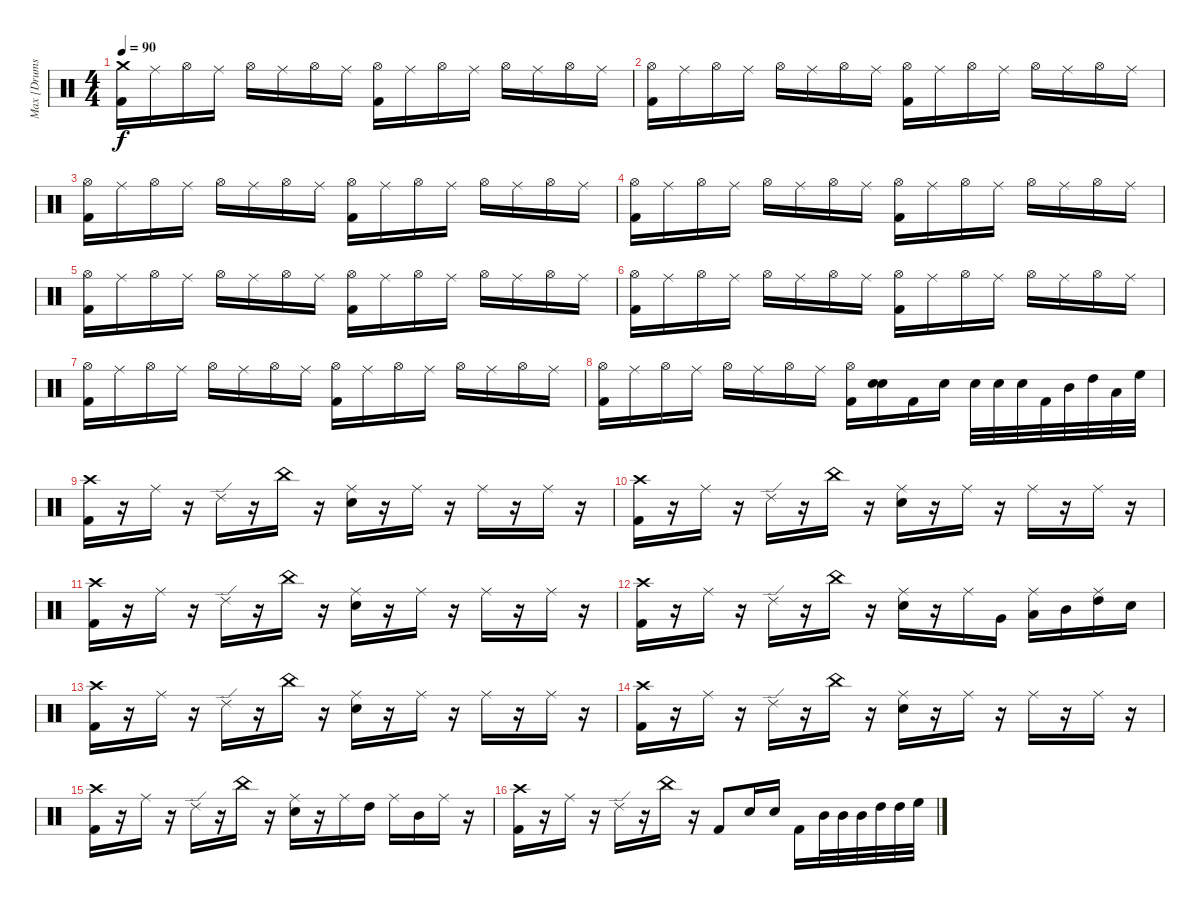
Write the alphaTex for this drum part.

\track ("Max [Drums]" "Max [Drums") {instrument percussion}
\staff {score}
\articulation defaults
\ts (4 4)
\tempo 90
\clef neutral
\ks c
("Crash medium (hit)" "Kick (hit) 2").16{dy f} "Ride (middle)".16 "Hi-Hat (open)".16 "Ride (middle)".16 "Hi-Hat (open)".16 "Ride (middle)".16 "Hi-Hat (open)".16 "Ride (middle)".16 ("Hi-Hat (open)" "Kick (hit) 2").16 "Ride (middle)".16 "Hi-Hat (open)".16 "Ride (middle)".16 "Hi-Hat (open)".16 "Ride (middle)".16 "Hi-Hat (open)".16 "Ride (middle)".16 |
("Hi-Hat (open)" "Kick (hit) 2").16 "Ride (middle)".16 "Hi-Hat (open)".16 "Ride (middle)".16 "Hi-Hat (open)".16 "Ride (middle)".16 "Hi-Hat (open)".16 "Ride (middle)".16 ("Hi-Hat (open)" "Kick (hit) 2").16 "Ride (middle)".16 "Hi-Hat (open)".16 "Ride (middle)".16 "Hi-Hat (open)".16 "Ride (middle)".16 "Hi-Hat (open)".16 "Ride (middle)".16 |
("Hi-Hat (open)" "Kick (hit) 2").16 "Ride (middle)".16 "Hi-Hat (open)".16 "Ride (middle)".16 "Hi-Hat (open)".16 "Ride (middle)".16 "Hi-Hat (open)".16 "Ride (middle)".16 ("Hi-Hat (open)" "Kick (hit) 2").16 "Ride (middle)".16 "Hi-Hat (open)".16 "Ride (middle)".16 "Hi-Hat (open)".16 "Ride (middle)".16 "Hi-Hat (open)".16 "Ride (middle)".16 |
("Hi-Hat (open)" "Kick (hit) 2").16 "Ride (middle)".16 "Hi-Hat (open)".16 "Ride (middle)".16 "Hi-Hat (open)".16 "Ride (middle)".16 "Hi-Hat (open)".16 "Ride (middle)".16 ("Hi-Hat (open)" "Kick (hit) 2").16 "Ride (middle)".16 "Hi-Hat (open)".16 "Ride (middle)".16 "Hi-Hat (open)".16 "Ride (middle)".16 "Hi-Hat (open)".16 "Ride (middle)".16 |
("Hi-Hat (open)" "Kick (hit) 2").16 "Ride (middle)".16 "Hi-Hat (open)".16 "Ride (middle)".16 "Hi-Hat (open)".16 "Ride (middle)".16 "Hi-Hat (open)".16 "Ride (middle)".16 ("Hi-Hat (open)" "Kick (hit) 2").16 "Ride (middle)".16 "Hi-Hat (open)".16 "Ride (middle)".16 "Hi-Hat (open)".16 "Ride (middle)".16 "Hi-Hat (open)".16 "Ride (middle)".16 |
("Hi-Hat (open)" "Kick (hit) 2").16 "Ride (middle)".16 "Hi-Hat (open)".16 "Ride (middle)".16 "Hi-Hat (open)".16 "Ride (middle)".16 "Hi-Hat (open)".16 "Ride (middle)".16 ("Hi-Hat (open)" "Kick (hit) 2").16 "Ride (middle)".16 "Hi-Hat (open)".16 "Ride (middle)".16 "Hi-Hat (open)".16 "Ride (middle)".16 "Hi-Hat (open)".16 "Ride (middle)".16 |
("Hi-Hat (open)" "Kick (hit) 2").16 "Ride (middle)".16 "Hi-Hat (open)".16 "Ride (middle)".16 "Hi-Hat (open)".16 "Ride (middle)".16 "Hi-Hat (open)".16 "Ride (middle)".16 ("Hi-Hat (open)" "Kick (hit) 2").16 "Ride (middle)".16 "Hi-Hat (open)".16 "Ride (middle)".16 "Hi-Hat (open)".16 "Ride (middle)".16 "Hi-Hat (open)".16 "Ride (middle)".16 |
("Hi-Hat (open)" "Kick (hit) 2").16 "Ride (middle)".16 "Hi-Hat (open)".16 "Ride (middle)".16 "Hi-Hat (open)".16 "Ride (middle)".16 "Hi-Hat (open)".16 "Ride (middle)".16 ("Hi-Hat (open)" "Kick (hit) 2").16 ("Snare (hit) 2" "Snare (hit) 2").16{bd 480} "Kick (hit) 2".16 "Snare (hit) 2".16 "Snare (hit) 2".32 "Snare (hit) 2".32 "Snare (hit) 2".32 "Kick (hit) 2".32 "Mid Tom (hit)".32 "High Tom (hit)".32 "Low Tom (hit)".32 "High Floor Tom (hit)".32 |
("Crash high (hit)" "Kick (hit) 2").16 r.16 "Ride (middle)".16 r.16 "Ride (edge) 2".16 r.16 "China (hit)".16 r.16 ("Ride (middle)" "Snare (hit) 2").16 r.16 "Ride (middle)".16 r.16 "Ride (middle)".16 r.16 "Ride (middle)".16 r.16 |
("Crash high (hit)" "Kick (hit) 2").16 r.16 "Ride (middle)".16 r.16 "Ride (edge) 2".16 r.16 "China (hit)".16 r.16 ("Ride (middle)" "Snare (hit) 2").16 r.16 "Ride (middle)".16 r.16 "Ride (middle)".16 r.16 "Ride (middle)".16 r.16 |
("Crash high (hit)" "Kick (hit) 2").16 r.16 "Ride (middle)".16 r.16 "Ride (edge) 2".16 r.16 "China (hit)".16 r.16 ("Ride (middle)" "Snare (hit) 2").16 r.16 "Ride (middle)".16 r.16 "Ride (middle)".16 r.16 "Ride (middle)".16 r.16 |
("Crash high (hit)" "Kick (hit) 2").16 r.16 "Ride (middle)".16 r.16 "Ride (edge) 2".16 r.16 "China (hit)".16 r.16 ("Ride (middle)" "Snare (hit) 2").16 r.16 "Ride (middle)".16 "Very Low Tom (hit)".16 ("Ride (middle)" "Low Tom (hit)").16 "Mid Tom (hit)".16 ("Ride (middle)" "High Tom (hit)").16 "Snare (hit) 2".16 |
("Crash high (hit)" "Kick (hit) 2").16 r.16 "Ride (middle)".16 r.16 "Ride (edge) 2".16 r.16 "China (hit)".16 r.16 ("Ride (middle)" "Snare (hit) 2").16 r.16 "Ride (middle)".16 r.16 "Ride (middle)".16 r.16 "Ride (middle)".16 r.16 |
("Crash high (hit)" "Kick (hit) 2").16 r.16 "Ride (middle)".16 r.16 "Ride (edge) 2".16 r.16 "China (hit)".16 r.16 ("Ride (middle)" "Snare (hit) 2").16 r.16 "Ride (middle)".16 r.16 "Ride (middle)".16 r.16 "Ride (middle)".16 r.16 |
("Crash high (hit)" "Kick (hit) 2").16 r.16 "Ride (middle)".16 r.16 "Ride (edge) 2".16 r.16 "China (hit)".16 r.16 ("Ride (middle)" "Snare (hit) 2").16 r.16 "Ride (middle)".16 "High Tom (hit)".16 "Ride (middle)".16 "Mid Tom (hit)".16 "Ride (middle)".16 r.16 |
("Crash high (hit)" "Kick (hit) 2").16 r.16 "Ride (middle)".16 r.16 "Ride (edge) 2".16 r.16 "China (hit)".16 r.16 "Kick (hit) 2".8 "Snare (hit) 2".16 "Snare (hit) 2".16 "Kick (hit) 2".16 "Mid Tom (hit)".32 "Mid Tom (hit)".32 "Mid Tom (hit)".32 "High Tom (hit)".32 "High Tom (hit)".32 "High Floor Tom (hit)".32
